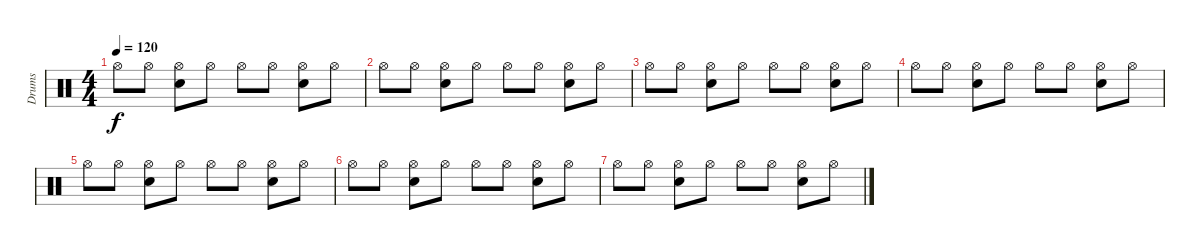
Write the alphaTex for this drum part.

\track ("Drums" "Drums") {instrument percussion}
\staff {score}
\articulation defaults
\ts (4 4)
\tempo 120
\clef neutral
\ks c "Hi-Hat (open)".8{dy f} "Hi-Hat (open)".8
("Hi-Hat (open)" "Snare (hit) 2").8 "Hi-Hat (open)".8 "Hi-Hat (open)".8 "Hi-Hat (open)".8 ("Hi-Hat (open)" "Snare (hit) 2").8 "Hi-Hat (open)".8 |
"Hi-Hat (open)".8 "Hi-Hat (open)".8 ("Hi-Hat (open)" "Snare (hit) 2").8 "Hi-Hat (open)".8 "Hi-Hat (open)".8 "Hi-Hat (open)".8 ("Hi-Hat (open)" "Snare (hit) 2").8 "Hi-Hat (open)".8 |
"Hi-Hat (open)".8 "Hi-Hat (open)".8 ("Hi-Hat (open)" "Snare (hit) 2").8 "Hi-Hat (open)".8 "Hi-Hat (open)".8 "Hi-Hat (open)".8 ("Hi-Hat (open)" "Snare (hit) 2").8 "Hi-Hat (open)".8 |
"Hi-Hat (open)".8 "Hi-Hat (open)".8 ("Hi-Hat (open)" "Snare (hit) 2").8 "Hi-Hat (open)".8 "Hi-Hat (open)".8 "Hi-Hat (open)".8 ("Hi-Hat (open)" "Snare (hit) 2").8 "Hi-Hat (open)".8 |
"Hi-Hat (open)".8 "Hi-Hat (open)".8 ("Hi-Hat (open)" "Snare (hit) 2").8 "Hi-Hat (open)".8 "Hi-Hat (open)".8 "Hi-Hat (open)".8 ("Hi-Hat (open)" "Snare (hit) 2").8 "Hi-Hat (open)".8 |
"Hi-Hat (open)".8 "Hi-Hat (open)".8 ("Hi-Hat (open)" "Snare (hit) 2").8 "Hi-Hat (open)".8 "Hi-Hat (open)".8 "Hi-Hat (open)".8 ("Hi-Hat (open)" "Snare (hit) 2").8 "Hi-Hat (open)".8 |
"Hi-Hat (open)".8 "Hi-Hat (open)".8 ("Hi-Hat (open)" "Snare (hit) 2").8 "Hi-Hat (open)".8 "Hi-Hat (open)".8 "Hi-Hat (open)".8 ("Hi-Hat (open)" "Snare (hit) 2").8 "Hi-Hat (open)".8
